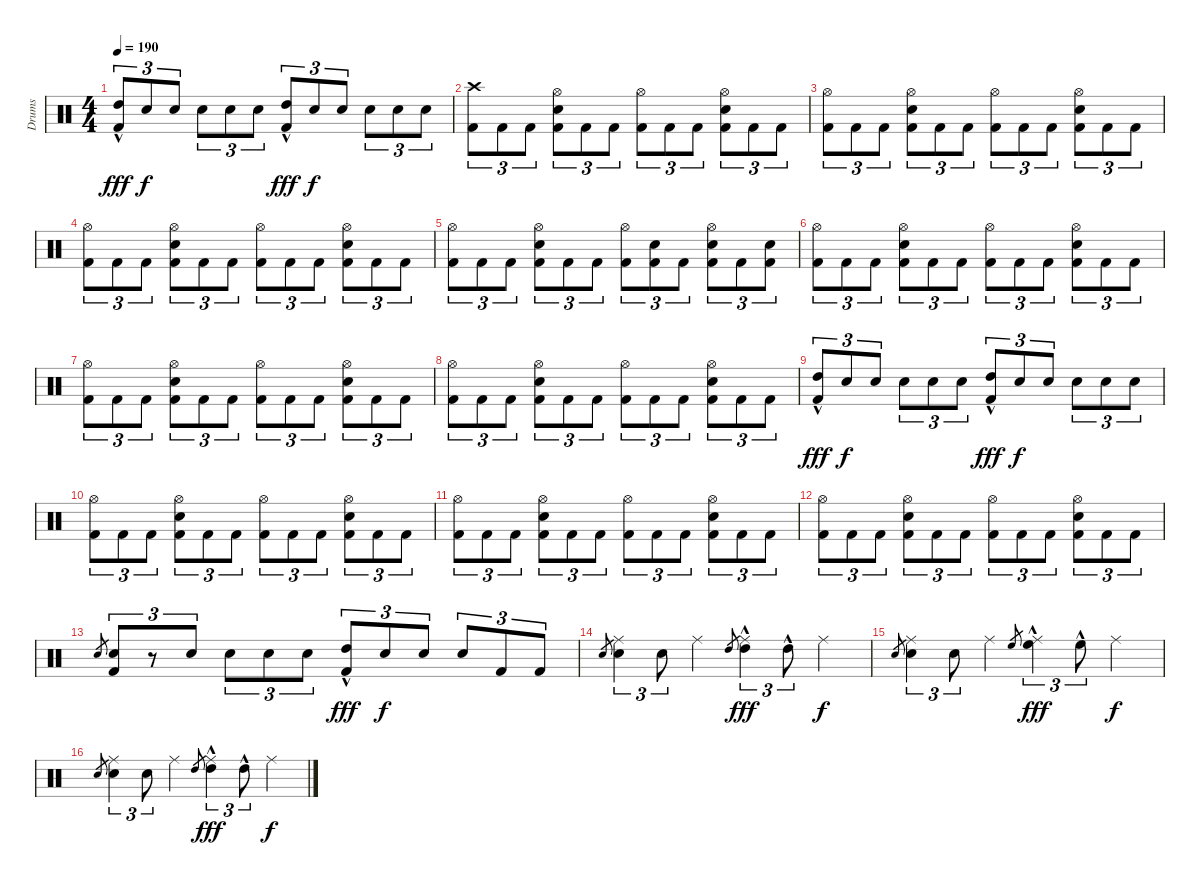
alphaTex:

\track ("Drums" "Drums") {instrument percussion}
\staff {score}
\articulation defaults
\ts (4 4)
\tempo 190
\clef neutral
\ks aminor
("Kick (hit) 2" "High Tom (hit)"{hac}).8{tu (3 2) dy fff} "Electric Snare (hit)".8{tu (3 2) dy f} "Electric Snare (hit)".8{tu (3 2)} "Electric Snare (hit)".8{tu (3 2)} "Electric Snare (hit)".8{tu (3 2)} "Electric Snare (hit)".8{tu (3 2)} ("Kick (hit) 2" "High Tom (hit)"{hac}).8{tu (3 2) dy fff} "Electric Snare (hit)".8{tu (3 2) dy f} "Electric Snare (hit)".8{tu (3 2)} "Electric Snare (hit)".8{tu (3 2)} "Electric Snare (hit)".8{tu (3 2)} "Electric Snare (hit)".8{tu (3 2)} |
("Kick (hit) 2" "Crash high (hit)").8{tu (3 2)} "Kick (hit) 2".8{tu (3 2)} "Kick (hit) 2".8{tu (3 2)} ("Kick (hit) 2" "Electric Snare (hit)" "Hi-Hat (open)").8{tu (3 2)} "Kick (hit) 2".8{tu (3 2)} "Kick (hit) 2".8{tu (3 2)} ("Kick (hit) 2" "Hi-Hat (open)").8{tu (3 2)} "Kick (hit) 2".8{tu (3 2)} "Kick (hit) 2".8{tu (3 2)} ("Kick (hit) 2" "Electric Snare (hit)" "Hi-Hat (open)").8{tu (3 2)} "Kick (hit) 2".8{tu (3 2)} "Kick (hit) 2".8{tu (3 2)} |
("Kick (hit) 2" "Hi-Hat (open)").8{tu (3 2)} "Kick (hit) 2".8{tu (3 2)} "Kick (hit) 2".8{tu (3 2)} ("Kick (hit) 2" "Electric Snare (hit)" "Hi-Hat (open)").8{tu (3 2)} "Kick (hit) 2".8{tu (3 2)} "Kick (hit) 2".8{tu (3 2)} ("Kick (hit) 2" "Hi-Hat (open)").8{tu (3 2)} "Kick (hit) 2".8{tu (3 2)} "Kick (hit) 2".8{tu (3 2)} ("Kick (hit) 2" "Electric Snare (hit)" "Hi-Hat (open)").8{tu (3 2)} "Kick (hit) 2".8{tu (3 2)} "Kick (hit) 2".8{tu (3 2)} |
("Kick (hit) 2" "Hi-Hat (open)").8{tu (3 2)} "Kick (hit) 2".8{tu (3 2)} "Kick (hit) 2".8{tu (3 2)} ("Kick (hit) 2" "Electric Snare (hit)" "Hi-Hat (open)").8{tu (3 2)} "Kick (hit) 2".8{tu (3 2)} "Kick (hit) 2".8{tu (3 2)} ("Kick (hit) 2" "Hi-Hat (open)").8{tu (3 2)} "Kick (hit) 2".8{tu (3 2)} "Kick (hit) 2".8{tu (3 2)} ("Kick (hit) 2" "Electric Snare (hit)" "Hi-Hat (open)").8{tu (3 2)} "Kick (hit) 2".8{tu (3 2)} "Kick (hit) 2".8{tu (3 2)} |
("Kick (hit) 2" "Hi-Hat (open)").8{tu (3 2)} "Kick (hit) 2".8{tu (3 2)} "Kick (hit) 2".8{tu (3 2)} ("Kick (hit) 2" "Electric Snare (hit)" "Hi-Hat (open)").8{tu (3 2)} "Kick (hit) 2".8{tu (3 2)} "Kick (hit) 2".8{tu (3 2)} ("Kick (hit) 2" "Hi-Hat (open)").8{tu (3 2)} ("Kick (hit) 2" "Electric Snare (hit)").8{tu (3 2)} "Kick (hit) 2".8{tu (3 2)} ("Kick (hit) 2" "Electric Snare (hit)" "Hi-Hat (open)").8{tu (3 2)} "Kick (hit) 2".8{tu (3 2)} ("Kick (hit) 2" "Electric Snare (hit)").8{tu (3 2)} |
("Kick (hit) 2" "Hi-Hat (open)").8{tu (3 2)} "Kick (hit) 2".8{tu (3 2)} "Kick (hit) 2".8{tu (3 2)} ("Kick (hit) 2" "Electric Snare (hit)" "Hi-Hat (open)").8{tu (3 2)} "Kick (hit) 2".8{tu (3 2)} "Kick (hit) 2".8{tu (3 2)} ("Kick (hit) 2" "Hi-Hat (open)").8{tu (3 2)} "Kick (hit) 2".8{tu (3 2)} "Kick (hit) 2".8{tu (3 2)} ("Kick (hit) 2" "Electric Snare (hit)" "Hi-Hat (open)").8{tu (3 2)} "Kick (hit) 2".8{tu (3 2)} "Kick (hit) 2".8{tu (3 2)} |
("Kick (hit) 2" "Hi-Hat (open)").8{tu (3 2)} "Kick (hit) 2".8{tu (3 2)} "Kick (hit) 2".8{tu (3 2)} ("Kick (hit) 2" "Electric Snare (hit)" "Hi-Hat (open)").8{tu (3 2)} "Kick (hit) 2".8{tu (3 2)} "Kick (hit) 2".8{tu (3 2)} ("Kick (hit) 2" "Hi-Hat (open)").8{tu (3 2)} "Kick (hit) 2".8{tu (3 2)} "Kick (hit) 2".8{tu (3 2)} ("Kick (hit) 2" "Electric Snare (hit)" "Hi-Hat (open)").8{tu (3 2)} "Kick (hit) 2".8{tu (3 2)} "Kick (hit) 2".8{tu (3 2)} |
("Kick (hit) 2" "Hi-Hat (open)").8{tu (3 2)} "Kick (hit) 2".8{tu (3 2)} "Kick (hit) 2".8{tu (3 2)} ("Kick (hit) 2" "Electric Snare (hit)" "Hi-Hat (open)").8{tu (3 2)} "Kick (hit) 2".8{tu (3 2)} "Kick (hit) 2".8{tu (3 2)} ("Kick (hit) 2" "Hi-Hat (open)").8{tu (3 2)} "Kick (hit) 2".8{tu (3 2)} "Kick (hit) 2".8{tu (3 2)} ("Kick (hit) 2" "Electric Snare (hit)" "Hi-Hat (open)").8{tu (3 2)} "Kick (hit) 2".8{tu (3 2)} "Kick (hit) 2".8{tu (3 2)} |
("Kick (hit) 2" "High Tom (hit)"{hac}).8{tu (3 2) dy fff} "Electric Snare (hit)".8{tu (3 2) dy f} "Electric Snare (hit)".8{tu (3 2)} "Electric Snare (hit)".8{tu (3 2)} "Electric Snare (hit)".8{tu (3 2)} "Electric Snare (hit)".8{tu (3 2)} ("Kick (hit) 2" "High Tom (hit)"{hac}).8{tu (3 2) dy fff} "Electric Snare (hit)".8{tu (3 2) dy f} "Electric Snare (hit)".8{tu (3 2)} "Electric Snare (hit)".8{tu (3 2)} "Electric Snare (hit)".8{tu (3 2)} "Electric Snare (hit)".8{tu (3 2)} |
("Kick (hit) 2" "Hi-Hat (open)").8{tu (3 2)} "Kick (hit) 2".8{tu (3 2)} "Kick (hit) 2".8{tu (3 2)} ("Kick (hit) 2" "Electric Snare (hit)" "Hi-Hat (open)").8{tu (3 2)} "Kick (hit) 2".8{tu (3 2)} "Kick (hit) 2".8{tu (3 2)} ("Kick (hit) 2" "Hi-Hat (open)").8{tu (3 2)} "Kick (hit) 2".8{tu (3 2)} "Kick (hit) 2".8{tu (3 2)} ("Kick (hit) 2" "Electric Snare (hit)" "Hi-Hat (open)").8{tu (3 2)} "Kick (hit) 2".8{tu (3 2)} "Kick (hit) 2".8{tu (3 2)} |
("Kick (hit) 2" "Hi-Hat (open)").8{tu (3 2)} "Kick (hit) 2".8{tu (3 2)} "Kick (hit) 2".8{tu (3 2)} ("Kick (hit) 2" "Electric Snare (hit)" "Hi-Hat (open)").8{tu (3 2)} "Kick (hit) 2".8{tu (3 2)} "Kick (hit) 2".8{tu (3 2)} ("Kick (hit) 2" "Hi-Hat (open)").8{tu (3 2)} "Kick (hit) 2".8{tu (3 2)} "Kick (hit) 2".8{tu (3 2)} ("Kick (hit) 2" "Electric Snare (hit)" "Hi-Hat (open)").8{tu (3 2)} "Kick (hit) 2".8{tu (3 2)} "Kick (hit) 2".8{tu (3 2)} |
("Kick (hit) 2" "Hi-Hat (open)").8{tu (3 2)} "Kick (hit) 2".8{tu (3 2)} "Kick (hit) 2".8{tu (3 2)} ("Kick (hit) 2" "Electric Snare (hit)" "Hi-Hat (open)").8{tu (3 2)} "Kick (hit) 2".8{tu (3 2)} "Kick (hit) 2".8{tu (3 2)} ("Kick (hit) 2" "Hi-Hat (open)").8{tu (3 2)} "Kick (hit) 2".8{tu (3 2)} "Kick (hit) 2".8{tu (3 2)} ("Kick (hit) 2" "Electric Snare (hit)" "Hi-Hat (open)").8{tu (3 2)} "Kick (hit) 2".8{tu (3 2)} "Kick (hit) 2".8{tu (3 2)} |
"Electric Snare (hit)".8{gr} ("Kick (hit) 2" "Electric Snare (hit)").8{tu (3 2)} r.8{tu (3 2)} "Electric Snare (hit)".8{tu (3 2)} "Electric Snare (hit)".8{tu (3 2)} "Electric Snare (hit)".8{tu (3 2)} "Electric Snare (hit)".8{tu (3 2)} ("Kick (hit) 2" "High Tom (hit)"{hac}).8{tu (3 2) dy fff} "Electric Snare (hit)".8{tu (3 2) dy f} "Electric Snare (hit)".8{tu (3 2)} "Electric Snare (hit)".8{tu (3 2)} "Kick (hit) 2".8{tu (3 2)} "Kick (hit) 2".8{tu (3 2)} |
"Electric Snare (hit)".8{gr} ("Electric Snare (hit)" "Ride (middle)").4{tu (3 2)} "Electric Snare (hit)".8{tu (3 2)} "Ride (middle)".4 "High Tom (hit)".8{gr} ("Ride (middle)" "High Tom (hit)"{hac}).4{tu (3 2) dy fff} "High Tom (hit)"{hac}.8{tu (3 2)} "Ride (middle)".4{dy f} |
"Electric Snare (hit)".8{gr} ("Electric Snare (hit)" "Ride (middle)").4{tu (3 2)} "Electric Snare (hit)".8{tu (3 2)} "Ride (middle)".4 "High Floor Tom (hit)".8{gr} ("Ride (middle)" "High Floor Tom (hit)"{hac}).4{tu (3 2) dy fff} "High Floor Tom (hit)"{hac}.8{tu (3 2)} "Ride (middle)".4{dy f} |
"Electric Snare (hit)".8{gr} ("Electric Snare (hit)" "Ride (middle)").4{tu (3 2)} "Electric Snare (hit)".8{tu (3 2)} "Ride (middle)".4 "High Tom (hit)".8{gr} ("Ride (middle)" "High Tom (hit)"{hac}).4{tu (3 2) dy fff} "High Tom (hit)"{hac}.8{tu (3 2)} "Ride (middle)".4{dy f}
